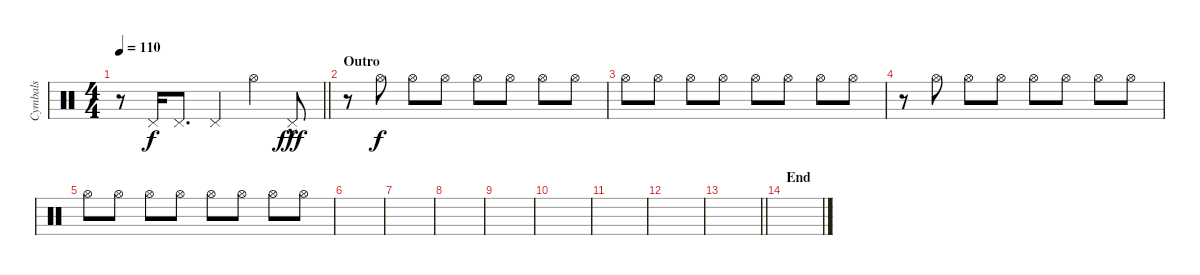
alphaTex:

\track ("Cymbals" "Cymbals") {instrument percussion}
\staff {score}
\articulation defaults
\ts (4 4)
\tempo 110
\clef neutral
\barLineRight lightlight
\ks c
r.8{dy f} "Pedal Hi-Hat (hit)".16 "Pedal Hi-Hat (hit)".8{d} "Pedal Hi-Hat (hit)".4 "Hi-Hat (open)".4 "Pedal Hi-Hat (hit)"{hac}.8{dy fff} |
\section ("" "Outro")
r.8 "Hi-Hat (open)".8{dy f} "Hi-Hat (open)".8 "Hi-Hat (open)".8 "Hi-Hat (open)".8 "Hi-Hat (open)".8 "Hi-Hat (open)".8 "Hi-Hat (open)".8 |
"Hi-Hat (open)".8 "Hi-Hat (open)".8 "Hi-Hat (open)".8 "Hi-Hat (open)".8 "Hi-Hat (open)".8 "Hi-Hat (open)".8 "Hi-Hat (open)".8 "Hi-Hat (open)".8 |
r.8 "Hi-Hat (open)".8 "Hi-Hat (open)".8 "Hi-Hat (open)".8 "Hi-Hat (open)".8 "Hi-Hat (open)".8 "Hi-Hat (open)".8 "Hi-Hat (open)".8 |
"Hi-Hat (open)".8 "Hi-Hat (open)".8 "Hi-Hat (open)".8 "Hi-Hat (open)".8 "Hi-Hat (open)".8 "Hi-Hat (open)".8 "Hi-Hat (open)".8 "Hi-Hat (open)".8 |
|
|
|
|
|
|
|
\barLineRight lightlight
|
\section ("" "End")
